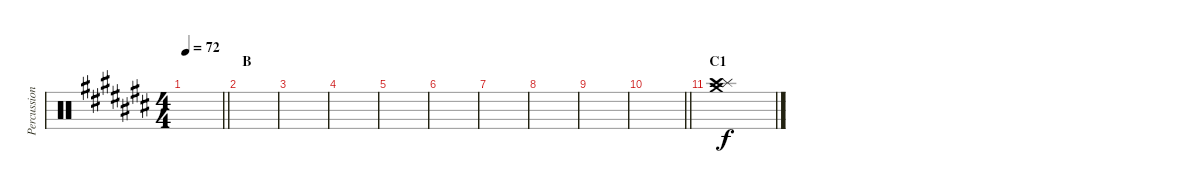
\track ("Percussion" "Percussion") {instrument percussion}
\staff {score}
\articulation defaults
\ts (4 4)
\tempo 72
\clef neutral
\barLineRight lightlight
\ks c#
|
\section ("" "B")
|
|
|
|
|
|
|
|
\barLineRight lightlight
|
\section ("" "C1")
("Splash (hit)" "Crash high (hit)" "Crash medium (hit)").1
